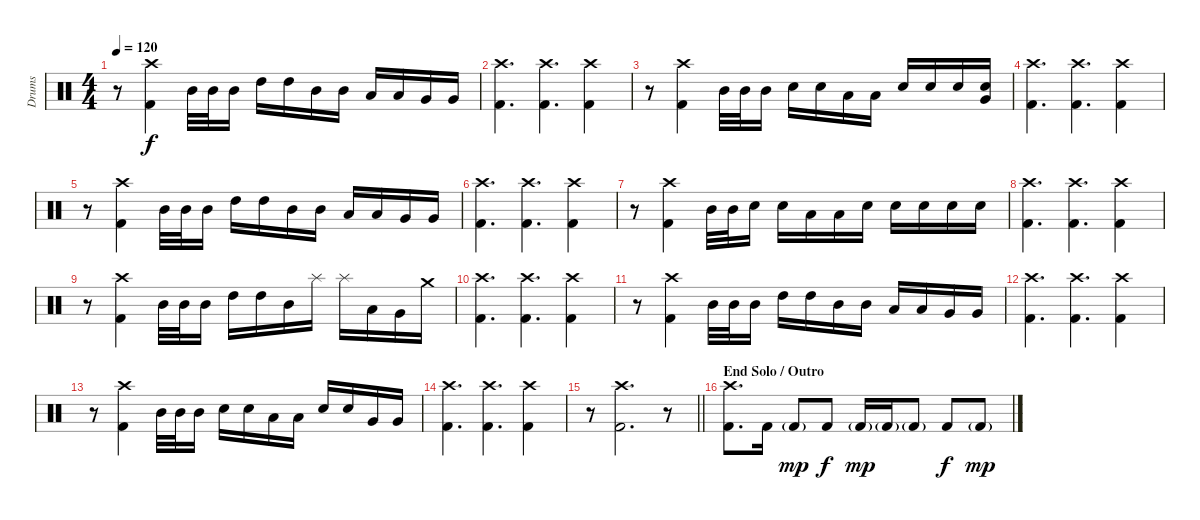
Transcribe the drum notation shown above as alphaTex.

\track ("Drums" "Drums") {instrument percussion}
\staff {score}
\articulation defaults
\ts (4 4)
\tempo 120
\clef neutral
\ks c
r.8{dy f} ("Crash high (hit)" "Kick (hit) 2").4 "Mid Tom (hit)".32 "Mid Tom (hit)".32 "Mid Tom (hit)".16 "High Tom (hit)".16 "High Tom (hit)".16 "Mid Tom (hit)".16 "Mid Tom (hit)".16 "Low Tom (hit)".16 "Low Tom (hit)".16 "Very Low Tom (hit)".16 "Very Low Tom (hit)".16 |
("Crash high (hit)" "Kick (hit) 2").4{d} ("Crash high (hit)" "Kick (hit) 2").4{d} ("Crash high (hit)" "Kick (hit) 2").4 |
r.8 ("Crash high (hit)" "Kick (hit) 2").4 "Mid Tom (hit)".32 "Mid Tom (hit)".32 "Mid Tom (hit)".16 "Electric Snare (hit)".16 "Electric Snare (hit)".16 "Low Tom (hit)".16 "Low Tom (hit)".16 "Electric Snare (hit)".16 "Electric Snare (hit)".16 "Electric Snare (hit)".16 ("Very Low Tom (hit)" "Electric Snare (hit)").16 |
("Crash high (hit)" "Kick (hit) 2").4{d} ("Crash high (hit)" "Kick (hit) 2").4{d} ("Crash high (hit)" "Kick (hit) 2").4 |
r.8 ("Crash high (hit)" "Kick (hit) 2").4 "Mid Tom (hit)".32 "Mid Tom (hit)".32 "Mid Tom (hit)".16 "High Tom (hit)".16 "High Tom (hit)".16 "Mid Tom (hit)".16 "Mid Tom (hit)".16 "Low Tom (hit)".16 "Low Tom (hit)".16 "Very Low Tom (hit)".16 "Very Low Tom (hit)".16 |
("Crash high (hit)" "Kick (hit) 2").4{d} ("Crash high (hit)" "Kick (hit) 2").4{d} ("Crash high (hit)" "Kick (hit) 2").4 |
r.8 ("Crash high (hit)" "Kick (hit) 2").4 "Mid Tom (hit)".32 "Mid Tom (hit)".32 "Electric Snare (hit)".16 "Electric Snare (hit)".16 "Low Tom (hit)".16 "Low Tom (hit)".16 "Electric Snare (hit)".16 "Electric Snare (hit)".16 "Electric Snare (hit)".16 "Electric Snare (hit)".16 "Electric Snare (hit)".16 |
("Crash high (hit)" "Kick (hit) 2").4{d} ("Crash high (hit)" "Kick (hit) 2").4{d} ("Crash high (hit)" "Kick (hit) 2").4 |
r.8 ("Crash high (hit)" "Kick (hit) 2").4 "Mid Tom (hit)".32 "Mid Tom (hit)".32 "Mid Tom (hit)".16 "High Tom (hit)".16 "High Tom (hit)".16 "Mid Tom (hit)".16 "Splash (hit)".16{balance 16} "Splash (hit)".16{balance 0} "Low Tom (hit)".16{balance 8} "Very Low Tom (hit)".16 "Crash medium (hit)".16 |
("Crash high (hit)" "Kick (hit) 2").4{d} ("Crash high (hit)" "Kick (hit) 2").4{d} ("Crash high (hit)" "Kick (hit) 2").4 |
r.8 ("Crash high (hit)" "Kick (hit) 2").4 "Mid Tom (hit)".32 "Mid Tom (hit)".32 "Mid Tom (hit)".16 "High Tom (hit)".16 "High Tom (hit)".16 "Mid Tom (hit)".16 "Mid Tom (hit)".16 "Low Tom (hit)".16 "Low Tom (hit)".16 "Very Low Tom (hit)".16 "Very Low Tom (hit)".16 |
("Crash high (hit)" "Kick (hit) 2").4{d} ("Crash high (hit)" "Kick (hit) 2").4{d} ("Crash high (hit)" "Kick (hit) 2").4 |
r.8 ("Crash high (hit)" "Kick (hit) 2").4 "Mid Tom (hit)".32 "Mid Tom (hit)".32 "Mid Tom (hit)".16 "Electric Snare (hit)".16 "Electric Snare (hit)".16 "Low Tom (hit)".16 "Low Tom (hit)".16 "Electric Snare (hit)".16 "Electric Snare (hit)".16 "Very Low Tom (hit)".16 "Very Low Tom (hit)".16 |
("Crash high (hit)" "Kick (hit) 2").4{d} ("Crash high (hit)" "Kick (hit) 2").4{d} ("Crash high (hit)" "Kick (hit) 2").4 |
\barLineRight lightlight
r.8 ("Crash high (hit)" "Kick (hit) 2").2{d} r.8 |
\section ("" "End Solo / Outro")
("Crash high (hit)" "Kick (hit) 2").8{d} "Kick (hit) 2".16 "Kick (hit) 2"{g}.8{dy mp} "Kick (hit) 2".8{dy f} "Kick (hit) 2"{g}.16{dy mp} "Kick (hit) 2"{g}.16 "Kick (hit) 2"{g}.8 "Kick (hit) 2".8{dy f} "Kick (hit) 2"{g}.8{dy mp}
